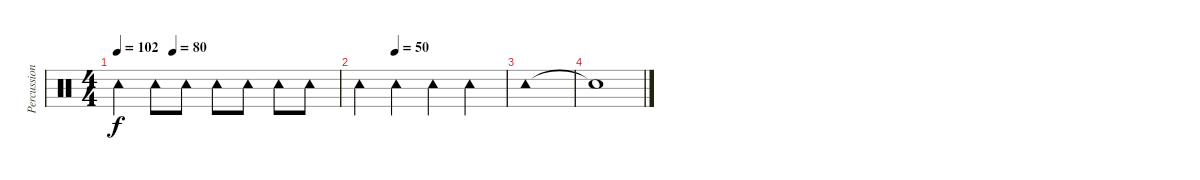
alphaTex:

\track ("Percussion" "Percussion") {instrument percussion}
\staff {score}
\articulation defaults
\ts (4 4)
\tempo 102
\tempo (80 0.25)
\clef neutral
\ks c "Tambourine (hit)".4{dy f} "Tambourine (hit)".8 "Tambourine (hit)".8 "Tambourine (hit)".8 "Tambourine (hit)".8 "Tambourine (hit)".8 "Tambourine (hit)".8
|
\tempo (50 0.25)
"Tambourine (hit)".4 "Tambourine (hit)".4 "Tambourine (hit)".4 "Tambourine (hit)".4 |
"Tambourine (hit)".1 |
"Snare (hit)"{t}.1
